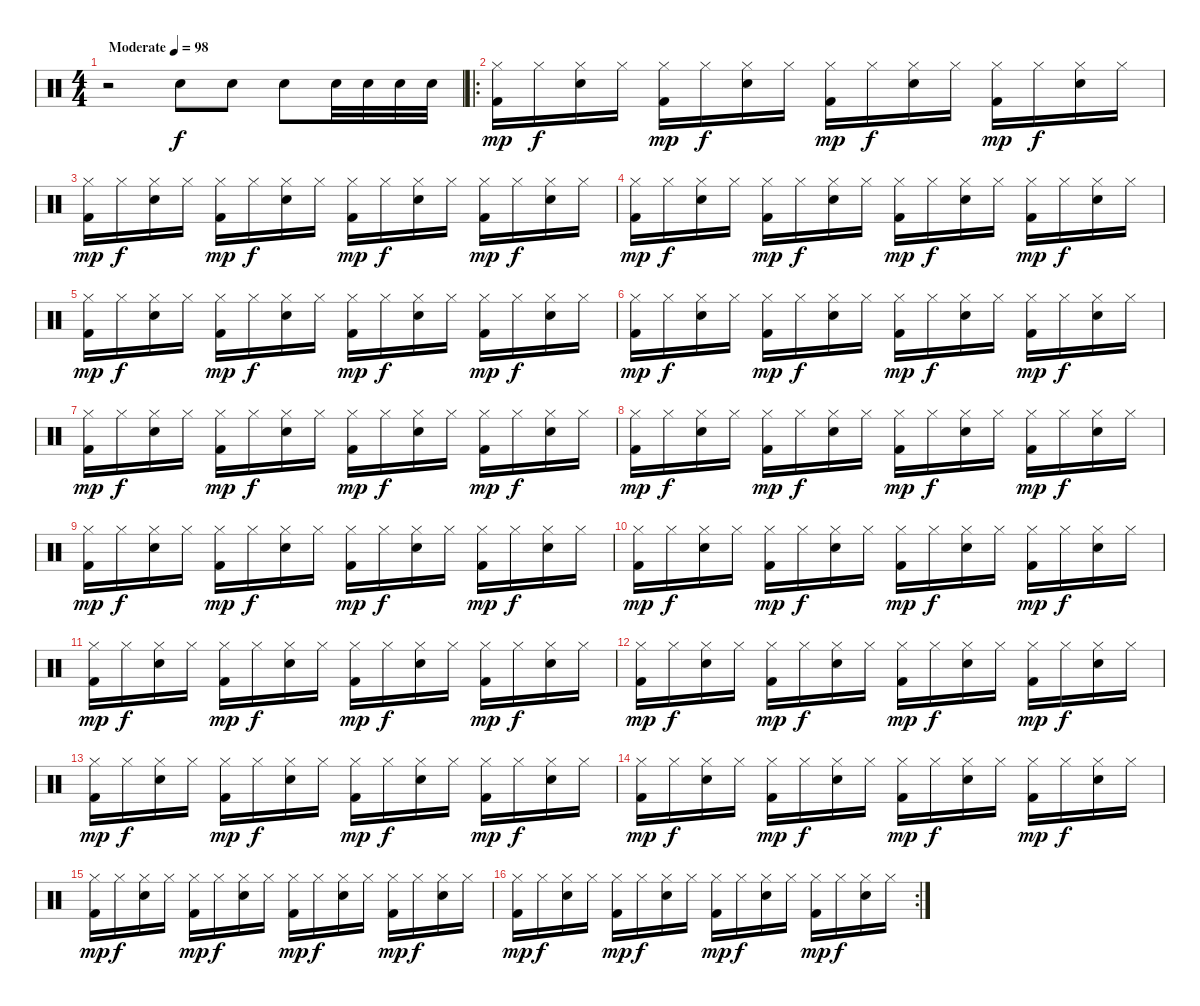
\track "" {instrument percussion}
\staff {score}
\articulation defaults
\ts (4 4)
\tempo (98 "Moderate")
\clef neutral
\ks c
r.2{dy f} "Snare (hit) 2".8 "Snare (hit) 2".8 "Snare (hit) 2".8 "Snare (hit) 2".32 "Snare (hit) 2".32 "Snare (hit) 2".32 "Snare (hit) 2".32 |
\ro
("Hi-Hat (closed)" "Kick (hit) 2").16{txt "" dy mp} "Hi-Hat (closed)".16{dy f} ("Hi-Hat (closed)" "Snare (hit) 2").16 "Hi-Hat (closed)".16 ("Hi-Hat (closed)" "Kick (hit) 2").16{dy mp} "Hi-Hat (closed)".16{dy f} ("Hi-Hat (closed)" "Snare (hit) 2").16 "Hi-Hat (closed)".16 ("Hi-Hat (closed)" "Kick (hit) 2").16{dy mp} "Hi-Hat (closed)".16{dy f} ("Hi-Hat (closed)" "Snare (hit) 2").16 "Hi-Hat (closed)".16 ("Hi-Hat (closed)" "Kick (hit) 2").16{dy mp} "Hi-Hat (closed)".16{dy f} ("Hi-Hat (closed)" "Snare (hit) 2").16 "Hi-Hat (closed)".16 |
("Hi-Hat (closed)" "Kick (hit) 2").16{dy mp} "Hi-Hat (closed)".16{dy f} ("Hi-Hat (closed)" "Snare (hit) 2").16 "Hi-Hat (closed)".16 ("Hi-Hat (closed)" "Kick (hit) 2").16{dy mp} "Hi-Hat (closed)".16{dy f} ("Hi-Hat (closed)" "Snare (hit) 2").16 "Hi-Hat (closed)".16 ("Hi-Hat (closed)" "Kick (hit) 2").16{dy mp} "Hi-Hat (closed)".16{dy f} ("Hi-Hat (closed)" "Snare (hit) 2").16 "Hi-Hat (closed)".16 ("Hi-Hat (closed)" "Kick (hit) 2").16{dy mp} "Hi-Hat (closed)".16{dy f} ("Hi-Hat (closed)" "Snare (hit) 2").16 "Hi-Hat (closed)".16 |
("Hi-Hat (closed)" "Kick (hit) 2").16{dy mp} "Hi-Hat (closed)".16{dy f} ("Hi-Hat (closed)" "Snare (hit) 2").16 "Hi-Hat (closed)".16 ("Hi-Hat (closed)" "Kick (hit) 2").16{dy mp} "Hi-Hat (closed)".16{dy f} ("Hi-Hat (closed)" "Snare (hit) 2").16 "Hi-Hat (closed)".16 ("Hi-Hat (closed)" "Kick (hit) 2").16{dy mp} "Hi-Hat (closed)".16{dy f} ("Hi-Hat (closed)" "Snare (hit) 2").16 "Hi-Hat (closed)".16 ("Hi-Hat (closed)" "Kick (hit) 2").16{dy mp} "Hi-Hat (closed)".16{dy f} ("Hi-Hat (closed)" "Snare (hit) 2").16 "Hi-Hat (closed)".16 |
("Hi-Hat (closed)" "Kick (hit) 2").16{dy mp} "Hi-Hat (closed)".16{dy f} ("Hi-Hat (closed)" "Snare (hit) 2").16 "Hi-Hat (closed)".16 ("Hi-Hat (closed)" "Kick (hit) 2").16{dy mp} "Hi-Hat (closed)".16{dy f} ("Hi-Hat (closed)" "Snare (hit) 2").16 "Hi-Hat (closed)".16 ("Hi-Hat (closed)" "Kick (hit) 2").16{dy mp} "Hi-Hat (closed)".16{dy f} ("Hi-Hat (closed)" "Snare (hit) 2").16 "Hi-Hat (closed)".16 ("Hi-Hat (closed)" "Kick (hit) 2").16{dy mp} "Hi-Hat (closed)".16{dy f} ("Hi-Hat (closed)" "Snare (hit) 2").16 "Hi-Hat (closed)".16 |
("Hi-Hat (closed)" "Kick (hit) 2").16{dy mp} "Hi-Hat (closed)".16{dy f} ("Hi-Hat (closed)" "Snare (hit) 2").16 "Hi-Hat (closed)".16 ("Hi-Hat (closed)" "Kick (hit) 2").16{dy mp} "Hi-Hat (closed)".16{dy f} ("Hi-Hat (closed)" "Snare (hit) 2").16 "Hi-Hat (closed)".16 ("Hi-Hat (closed)" "Kick (hit) 2").16{dy mp} "Hi-Hat (closed)".16{dy f} ("Hi-Hat (closed)" "Snare (hit) 2").16 "Hi-Hat (closed)".16 ("Hi-Hat (closed)" "Kick (hit) 2").16{dy mp} "Hi-Hat (closed)".16{dy f} ("Hi-Hat (closed)" "Snare (hit) 2").16 "Hi-Hat (closed)".16 |
("Hi-Hat (closed)" "Kick (hit) 2").16{dy mp} "Hi-Hat (closed)".16{dy f} ("Hi-Hat (closed)" "Snare (hit) 2").16 "Hi-Hat (closed)".16 ("Hi-Hat (closed)" "Kick (hit) 2").16{dy mp} "Hi-Hat (closed)".16{dy f} ("Hi-Hat (closed)" "Snare (hit) 2").16 "Hi-Hat (closed)".16 ("Hi-Hat (closed)" "Kick (hit) 2").16{dy mp} "Hi-Hat (closed)".16{dy f} ("Hi-Hat (closed)" "Snare (hit) 2").16 "Hi-Hat (closed)".16 ("Hi-Hat (closed)" "Kick (hit) 2").16{dy mp} "Hi-Hat (closed)".16{dy f} ("Hi-Hat (closed)" "Snare (hit) 2").16 "Hi-Hat (closed)".16 |
("Hi-Hat (closed)" "Kick (hit) 2").16{dy mp} "Hi-Hat (closed)".16{dy f} ("Hi-Hat (closed)" "Snare (hit) 2").16 "Hi-Hat (closed)".16 ("Hi-Hat (closed)" "Kick (hit) 2").16{dy mp} "Hi-Hat (closed)".16{dy f} ("Hi-Hat (closed)" "Snare (hit) 2").16 "Hi-Hat (closed)".16 ("Hi-Hat (closed)" "Kick (hit) 2").16{dy mp} "Hi-Hat (closed)".16{dy f} ("Hi-Hat (closed)" "Snare (hit) 2").16 "Hi-Hat (closed)".16 ("Hi-Hat (closed)" "Kick (hit) 2").16{dy mp} "Hi-Hat (closed)".16{dy f} ("Hi-Hat (closed)" "Snare (hit) 2").16 "Hi-Hat (closed)".16 |
("Hi-Hat (closed)" "Kick (hit) 2").16{dy mp} "Hi-Hat (closed)".16{dy f} ("Hi-Hat (closed)" "Snare (hit) 2").16 "Hi-Hat (closed)".16 ("Hi-Hat (closed)" "Kick (hit) 2").16{dy mp} "Hi-Hat (closed)".16{dy f} ("Hi-Hat (closed)" "Snare (hit) 2").16 "Hi-Hat (closed)".16 ("Hi-Hat (closed)" "Kick (hit) 2").16{dy mp} "Hi-Hat (closed)".16{dy f} ("Hi-Hat (closed)" "Snare (hit) 2").16 "Hi-Hat (closed)".16 ("Hi-Hat (closed)" "Kick (hit) 2").16{dy mp} "Hi-Hat (closed)".16{dy f} ("Hi-Hat (closed)" "Snare (hit) 2").16 "Hi-Hat (closed)".16 |
("Hi-Hat (closed)" "Kick (hit) 2").16{dy mp} "Hi-Hat (closed)".16{dy f} ("Hi-Hat (closed)" "Snare (hit) 2").16 "Hi-Hat (closed)".16 ("Hi-Hat (closed)" "Kick (hit) 2").16{dy mp} "Hi-Hat (closed)".16{dy f} ("Hi-Hat (closed)" "Snare (hit) 2").16 "Hi-Hat (closed)".16 ("Hi-Hat (closed)" "Kick (hit) 2").16{dy mp} "Hi-Hat (closed)".16{dy f} ("Hi-Hat (closed)" "Snare (hit) 2").16 "Hi-Hat (closed)".16 ("Hi-Hat (closed)" "Kick (hit) 2").16{dy mp} "Hi-Hat (closed)".16{dy f} ("Hi-Hat (closed)" "Snare (hit) 2").16 "Hi-Hat (closed)".16 |
("Hi-Hat (closed)" "Kick (hit) 2").16{dy mp} "Hi-Hat (closed)".16{dy f} ("Hi-Hat (closed)" "Snare (hit) 2").16 "Hi-Hat (closed)".16 ("Hi-Hat (closed)" "Kick (hit) 2").16{dy mp} "Hi-Hat (closed)".16{dy f} ("Hi-Hat (closed)" "Snare (hit) 2").16 "Hi-Hat (closed)".16 ("Hi-Hat (closed)" "Kick (hit) 2").16{dy mp} "Hi-Hat (closed)".16{dy f} ("Hi-Hat (closed)" "Snare (hit) 2").16 "Hi-Hat (closed)".16 ("Hi-Hat (closed)" "Kick (hit) 2").16{dy mp} "Hi-Hat (closed)".16{dy f} ("Hi-Hat (closed)" "Snare (hit) 2").16 "Hi-Hat (closed)".16 |
("Hi-Hat (closed)" "Kick (hit) 2").16{dy mp} "Hi-Hat (closed)".16{dy f} ("Hi-Hat (closed)" "Snare (hit) 2").16 "Hi-Hat (closed)".16 ("Hi-Hat (closed)" "Kick (hit) 2").16{dy mp} "Hi-Hat (closed)".16{dy f} ("Hi-Hat (closed)" "Snare (hit) 2").16 "Hi-Hat (closed)".16 ("Hi-Hat (closed)" "Kick (hit) 2").16{dy mp} "Hi-Hat (closed)".16{dy f} ("Hi-Hat (closed)" "Snare (hit) 2").16 "Hi-Hat (closed)".16 ("Hi-Hat (closed)" "Kick (hit) 2").16{dy mp} "Hi-Hat (closed)".16{dy f} ("Hi-Hat (closed)" "Snare (hit) 2").16 "Hi-Hat (closed)".16 |
("Hi-Hat (closed)" "Kick (hit) 2").16{dy mp} "Hi-Hat (closed)".16{dy f} ("Hi-Hat (closed)" "Snare (hit) 2").16 "Hi-Hat (closed)".16 ("Hi-Hat (closed)" "Kick (hit) 2").16{dy mp} "Hi-Hat (closed)".16{dy f} ("Hi-Hat (closed)" "Snare (hit) 2").16 "Hi-Hat (closed)".16 ("Hi-Hat (closed)" "Kick (hit) 2").16{dy mp} "Hi-Hat (closed)".16{dy f} ("Hi-Hat (closed)" "Snare (hit) 2").16 "Hi-Hat (closed)".16 ("Hi-Hat (closed)" "Kick (hit) 2").16{dy mp} "Hi-Hat (closed)".16{dy f} ("Hi-Hat (closed)" "Snare (hit) 2").16 "Hi-Hat (closed)".16 |
("Hi-Hat (closed)" "Kick (hit) 2").16{dy mp} "Hi-Hat (closed)".16{dy f} ("Hi-Hat (closed)" "Snare (hit) 2").16 "Hi-Hat (closed)".16 ("Hi-Hat (closed)" "Kick (hit) 2").16{dy mp} "Hi-Hat (closed)".16{dy f} ("Hi-Hat (closed)" "Snare (hit) 2").16 "Hi-Hat (closed)".16 ("Hi-Hat (closed)" "Kick (hit) 2").16{dy mp} "Hi-Hat (closed)".16{dy f} ("Hi-Hat (closed)" "Snare (hit) 2").16 "Hi-Hat (closed)".16 ("Hi-Hat (closed)" "Kick (hit) 2").16{dy mp} "Hi-Hat (closed)".16{dy f} ("Hi-Hat (closed)" "Snare (hit) 2").16 "Hi-Hat (closed)".16 |
("Hi-Hat (closed)" "Kick (hit) 2").16{dy mp} "Hi-Hat (closed)".16{dy f} ("Hi-Hat (closed)" "Snare (hit) 2").16 "Hi-Hat (closed)".16 ("Hi-Hat (closed)" "Kick (hit) 2").16{dy mp} "Hi-Hat (closed)".16{dy f} ("Hi-Hat (closed)" "Snare (hit) 2").16 "Hi-Hat (closed)".16 ("Hi-Hat (closed)" "Kick (hit) 2").16{dy mp} "Hi-Hat (closed)".16{dy f} ("Hi-Hat (closed)" "Snare (hit) 2").16 "Hi-Hat (closed)".16 ("Hi-Hat (closed)" "Kick (hit) 2").16{dy mp} "Hi-Hat (closed)".16{dy f} ("Hi-Hat (closed)" "Snare (hit) 2").16 "Hi-Hat (closed)".16 |
\rc 2
("Hi-Hat (closed)" "Kick (hit) 2").16{dy mp} "Hi-Hat (closed)".16{dy f} ("Hi-Hat (closed)" "Snare (hit) 2").16 "Hi-Hat (closed)".16 ("Hi-Hat (closed)" "Kick (hit) 2").16{dy mp} "Hi-Hat (closed)".16{dy f} ("Hi-Hat (closed)" "Snare (hit) 2").16 "Hi-Hat (closed)".16 ("Hi-Hat (closed)" "Kick (hit) 2").16{dy mp} "Hi-Hat (closed)".16{dy f} ("Hi-Hat (closed)" "Snare (hit) 2").16 "Hi-Hat (closed)".16 ("Hi-Hat (closed)" "Kick (hit) 2").16{dy mp} "Hi-Hat (closed)".16{dy f} ("Hi-Hat (closed)" "Snare (hit) 2").16 "Hi-Hat (closed)".16
